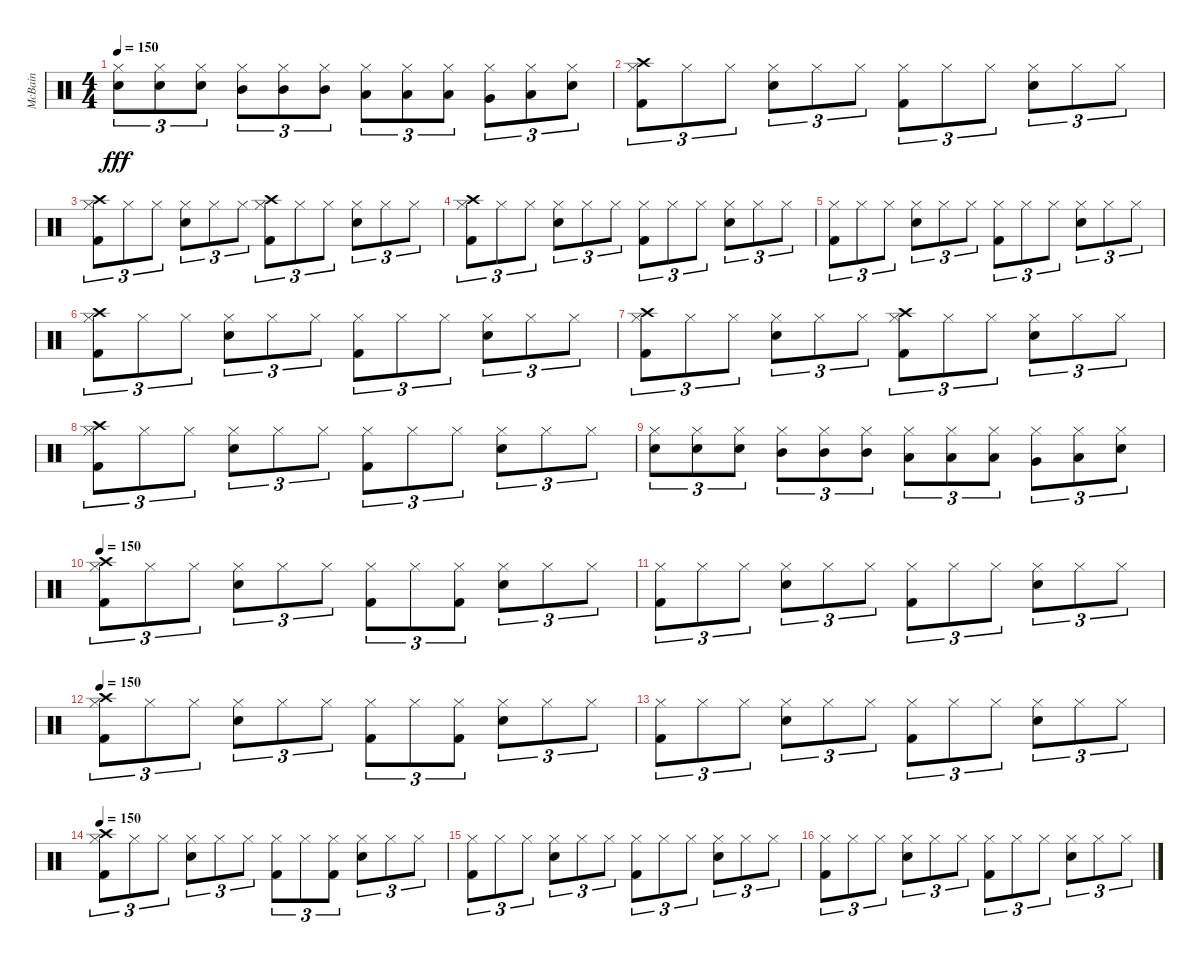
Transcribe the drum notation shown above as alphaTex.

\track ("McBain" "McBain") {instrument percussion}
\staff {score}
\articulation defaults
\ts (4 4)
\tempo 150
\clef neutral
\ks c
("Snare (hit) 2" "Hi-Hat (closed)").8{tu (3 2) dy fff} ("Snare (hit) 2" "Hi-Hat (closed)").8{tu (3 2)} ("Snare (hit) 2" "Hi-Hat (closed)").8{tu (3 2)} ("Mid Tom (hit)" "Hi-Hat (closed)").8{tu (3 2)} ("Mid Tom (hit)" "Hi-Hat (closed)").8{tu (3 2)} ("Mid Tom (hit)" "Hi-Hat (closed)").8{tu (3 2)} ("Low Tom (hit)" "Hi-Hat (closed)").8{tu (3 2)} ("Low Tom (hit)" "Hi-Hat (closed)").8{tu (3 2)} ("Low Tom (hit)" "Hi-Hat (closed)").8{tu (3 2)} ("Very Low Tom (hit)" "Hi-Hat (closed)").8{tu (3 2)} ("Low Floor Tom (hit)" "Hi-Hat (closed)").8{tu (3 2)} ("Electric Snare (hit)" "Hi-Hat (closed)").8{tu (3 2)} |
("Hi-Hat (closed)" "Kick (hit) 2" "Crash high (hit)").8{tu (3 2)} "Hi-Hat (closed)".8{tu (3 2)} "Hi-Hat (closed)".8{tu (3 2)} ("Hi-Hat (closed)" "Snare (hit) 2").8{tu (3 2)} "Hi-Hat (closed)".8{tu (3 2)} "Hi-Hat (closed)".8{tu (3 2)} ("Hi-Hat (closed)" "Kick (hit) 2").8{tu (3 2)} "Hi-Hat (closed)".8{tu (3 2)} "Hi-Hat (closed)".8{tu (3 2)} ("Hi-Hat (closed)" "Snare (hit) 2").8{tu (3 2)} "Hi-Hat (closed)".8{tu (3 2)} "Hi-Hat (closed)".8{tu (3 2)} |
("Hi-Hat (closed)" "Kick (hit) 2" "Crash high (hit)").8{tu (3 2)} "Hi-Hat (closed)".8{tu (3 2)} "Hi-Hat (closed)".8{tu (3 2)} ("Hi-Hat (closed)" "Snare (hit) 2").8{tu (3 2)} "Hi-Hat (closed)".8{tu (3 2)} "Hi-Hat (closed)".8{tu (3 2)} ("Hi-Hat (closed)" "Kick (hit) 2" "Crash high (hit)").8{tu (3 2)} "Hi-Hat (closed)".8{tu (3 2)} "Hi-Hat (closed)".8{tu (3 2)} ("Hi-Hat (closed)" "Snare (hit) 2").8{tu (3 2)} "Hi-Hat (closed)".8{tu (3 2)} "Hi-Hat (closed)".8{tu (3 2)} |
("Hi-Hat (closed)" "Kick (hit) 2" "Crash high (hit)").8{tu (3 2)} "Hi-Hat (closed)".8{tu (3 2)} "Hi-Hat (closed)".8{tu (3 2)} ("Hi-Hat (closed)" "Snare (hit) 2").8{tu (3 2)} "Hi-Hat (closed)".8{tu (3 2)} "Hi-Hat (closed)".8{tu (3 2)} ("Hi-Hat (closed)" "Kick (hit) 2").8{tu (3 2)} "Hi-Hat (closed)".8{tu (3 2)} "Hi-Hat (closed)".8{tu (3 2)} ("Hi-Hat (closed)" "Snare (hit) 2").8{tu (3 2)} "Hi-Hat (closed)".8{tu (3 2)} "Hi-Hat (closed)".8{tu (3 2)} |
("Hi-Hat (closed)" "Kick (hit) 2").8{tu (3 2)} "Hi-Hat (closed)".8{tu (3 2)} "Hi-Hat (closed)".8{tu (3 2)} ("Hi-Hat (closed)" "Snare (hit) 2").8{tu (3 2)} "Hi-Hat (closed)".8{tu (3 2)} "Hi-Hat (closed)".8{tu (3 2)} ("Hi-Hat (closed)" "Kick (hit) 2").8{tu (3 2)} "Hi-Hat (closed)".8{tu (3 2)} "Hi-Hat (closed)".8{tu (3 2)} ("Hi-Hat (closed)" "Snare (hit) 2").8{tu (3 2)} "Hi-Hat (closed)".8{tu (3 2)} "Hi-Hat (closed)".8{tu (3 2)} |
("Hi-Hat (closed)" "Kick (hit) 2" "Crash high (hit)").8{tu (3 2)} "Hi-Hat (closed)".8{tu (3 2)} "Hi-Hat (closed)".8{tu (3 2)} ("Hi-Hat (closed)" "Snare (hit) 2").8{tu (3 2)} "Hi-Hat (closed)".8{tu (3 2)} "Hi-Hat (closed)".8{tu (3 2)} ("Hi-Hat (closed)" "Kick (hit) 2").8{tu (3 2)} "Hi-Hat (closed)".8{tu (3 2)} "Hi-Hat (closed)".8{tu (3 2)} ("Hi-Hat (closed)" "Snare (hit) 2").8{tu (3 2)} "Hi-Hat (closed)".8{tu (3 2)} "Hi-Hat (closed)".8{tu (3 2)} |
("Hi-Hat (closed)" "Kick (hit) 2" "Crash high (hit)").8{tu (3 2)} "Hi-Hat (closed)".8{tu (3 2)} "Hi-Hat (closed)".8{tu (3 2)} ("Hi-Hat (closed)" "Snare (hit) 2").8{tu (3 2)} "Hi-Hat (closed)".8{tu (3 2)} "Hi-Hat (closed)".8{tu (3 2)} ("Hi-Hat (closed)" "Kick (hit) 2" "Crash high (hit)").8{tu (3 2)} "Hi-Hat (closed)".8{tu (3 2)} "Hi-Hat (closed)".8{tu (3 2)} ("Hi-Hat (closed)" "Snare (hit) 2").8{tu (3 2)} "Hi-Hat (closed)".8{tu (3 2)} "Hi-Hat (closed)".8{tu (3 2)} |
("Hi-Hat (closed)" "Kick (hit) 2" "Crash high (hit)").8{tu (3 2)} "Hi-Hat (closed)".8{tu (3 2)} "Hi-Hat (closed)".8{tu (3 2)} ("Hi-Hat (closed)" "Snare (hit) 2").8{tu (3 2)} "Hi-Hat (closed)".8{tu (3 2)} "Hi-Hat (closed)".8{tu (3 2)} ("Hi-Hat (closed)" "Kick (hit) 2").8{tu (3 2)} "Hi-Hat (closed)".8{tu (3 2)} "Hi-Hat (closed)".8{tu (3 2)} ("Hi-Hat (closed)" "Snare (hit) 2").8{tu (3 2)} "Hi-Hat (closed)".8{tu (3 2)} "Hi-Hat (closed)".8{tu (3 2)} |
("Snare (hit) 2" "Hi-Hat (closed)").8{tu (3 2)} ("Snare (hit) 2" "Hi-Hat (closed)").8{tu (3 2)} ("Snare (hit) 2" "Hi-Hat (closed)").8{tu (3 2)} ("Mid Tom (hit)" "Hi-Hat (closed)").8{tu (3 2)} ("Mid Tom (hit)" "Hi-Hat (closed)").8{tu (3 2)} ("Mid Tom (hit)" "Hi-Hat (closed)").8{tu (3 2)} ("Low Tom (hit)" "Hi-Hat (closed)").8{tu (3 2)} ("Low Tom (hit)" "Hi-Hat (closed)").8{tu (3 2)} ("Low Tom (hit)" "Hi-Hat (closed)").8{tu (3 2)} ("Very Low Tom (hit)" "Hi-Hat (closed)").8{tu (3 2)} ("Low Floor Tom (hit)" "Hi-Hat (closed)").8{tu (3 2)} ("Electric Snare (hit)" "Hi-Hat (closed)").8{tu (3 2)} |
\tempo 150
("Hi-Hat (closed)" "Kick (hit) 2" "Crash high (hit)").8{tu (3 2)} "Hi-Hat (closed)".8{tu (3 2)} "Hi-Hat (closed)".8{tu (3 2)} ("Hi-Hat (closed)" "Snare (hit) 2").8{tu (3 2)} "Hi-Hat (closed)".8{tu (3 2)} "Hi-Hat (closed)".8{tu (3 2)} ("Hi-Hat (closed)" "Kick (hit) 2").8{tu (3 2)} "Hi-Hat (closed)".8{tu (3 2)} ("Hi-Hat (closed)" "Kick (hit) 2").8{tu (3 2)} ("Hi-Hat (closed)" "Snare (hit) 2").8{tu (3 2)} "Hi-Hat (closed)".8{tu (3 2)} "Hi-Hat (closed)".8{tu (3 2)} |
("Hi-Hat (closed)" "Kick (hit) 2").8{tu (3 2)} "Hi-Hat (closed)".8{tu (3 2)} "Hi-Hat (closed)".8{tu (3 2)} ("Hi-Hat (closed)" "Snare (hit) 2").8{tu (3 2)} "Hi-Hat (closed)".8{tu (3 2)} "Hi-Hat (closed)".8{tu (3 2)} ("Hi-Hat (closed)" "Kick (hit) 2").8{tu (3 2)} "Hi-Hat (closed)".8{tu (3 2)} "Hi-Hat (closed)".8{tu (3 2)} ("Hi-Hat (closed)" "Snare (hit) 2").8{tu (3 2)} "Hi-Hat (closed)".8{tu (3 2)} "Hi-Hat (closed)".8{tu (3 2)} |
\tempo 150
("Hi-Hat (closed)" "Kick (hit) 2" "Crash high (hit)").8{tu (3 2)} "Hi-Hat (closed)".8{tu (3 2)} "Hi-Hat (closed)".8{tu (3 2)} ("Hi-Hat (closed)" "Snare (hit) 2").8{tu (3 2)} "Hi-Hat (closed)".8{tu (3 2)} "Hi-Hat (closed)".8{tu (3 2)} ("Hi-Hat (closed)" "Kick (hit) 2").8{tu (3 2)} "Hi-Hat (closed)".8{tu (3 2)} ("Hi-Hat (closed)" "Kick (hit) 2").8{tu (3 2)} ("Hi-Hat (closed)" "Snare (hit) 2").8{tu (3 2)} "Hi-Hat (closed)".8{tu (3 2)} "Hi-Hat (closed)".8{tu (3 2)} |
("Hi-Hat (closed)" "Kick (hit) 2").8{tu (3 2)} "Hi-Hat (closed)".8{tu (3 2)} "Hi-Hat (closed)".8{tu (3 2)} ("Hi-Hat (closed)" "Snare (hit) 2").8{tu (3 2)} "Hi-Hat (closed)".8{tu (3 2)} "Hi-Hat (closed)".8{tu (3 2)} ("Hi-Hat (closed)" "Kick (hit) 2").8{tu (3 2)} "Hi-Hat (closed)".8{tu (3 2)} "Hi-Hat (closed)".8{tu (3 2)} ("Hi-Hat (closed)" "Snare (hit) 2").8{tu (3 2)} "Hi-Hat (closed)".8{tu (3 2)} "Hi-Hat (closed)".8{tu (3 2)} |
\tempo 150
("Hi-Hat (closed)" "Kick (hit) 2" "Crash high (hit)").8{tu (3 2)} "Hi-Hat (closed)".8{tu (3 2)} "Hi-Hat (closed)".8{tu (3 2)} ("Hi-Hat (closed)" "Snare (hit) 2").8{tu (3 2)} "Hi-Hat (closed)".8{tu (3 2)} "Hi-Hat (closed)".8{tu (3 2)} ("Hi-Hat (closed)" "Kick (hit) 2").8{tu (3 2)} "Hi-Hat (closed)".8{tu (3 2)} ("Hi-Hat (closed)" "Kick (hit) 2").8{tu (3 2)} ("Hi-Hat (closed)" "Snare (hit) 2").8{tu (3 2)} "Hi-Hat (closed)".8{tu (3 2)} "Hi-Hat (closed)".8{tu (3 2)} |
("Hi-Hat (closed)" "Kick (hit) 2").8{tu (3 2)} "Hi-Hat (closed)".8{tu (3 2)} "Hi-Hat (closed)".8{tu (3 2)} ("Hi-Hat (closed)" "Snare (hit) 2").8{tu (3 2)} "Hi-Hat (closed)".8{tu (3 2)} "Hi-Hat (closed)".8{tu (3 2)} ("Hi-Hat (closed)" "Kick (hit) 2").8{tu (3 2)} "Hi-Hat (closed)".8{tu (3 2)} "Hi-Hat (closed)".8{tu (3 2)} ("Hi-Hat (closed)" "Snare (hit) 2").8{tu (3 2)} "Hi-Hat (closed)".8{tu (3 2)} "Hi-Hat (closed)".8{tu (3 2)} |
("Hi-Hat (closed)" "Kick (hit) 2").8{tu (3 2)} "Hi-Hat (closed)".8{tu (3 2)} "Hi-Hat (closed)".8{tu (3 2)} ("Hi-Hat (closed)" "Snare (hit) 2").8{tu (3 2)} "Hi-Hat (closed)".8{tu (3 2)} "Hi-Hat (closed)".8{tu (3 2)} ("Hi-Hat (closed)" "Kick (hit) 2").8{tu (3 2)} "Hi-Hat (closed)".8{tu (3 2)} "Hi-Hat (closed)".8{tu (3 2)} ("Hi-Hat (closed)" "Snare (hit) 2").8{tu (3 2)} "Hi-Hat (closed)".8{tu (3 2)} "Hi-Hat (closed)".8{tu (3 2)}
